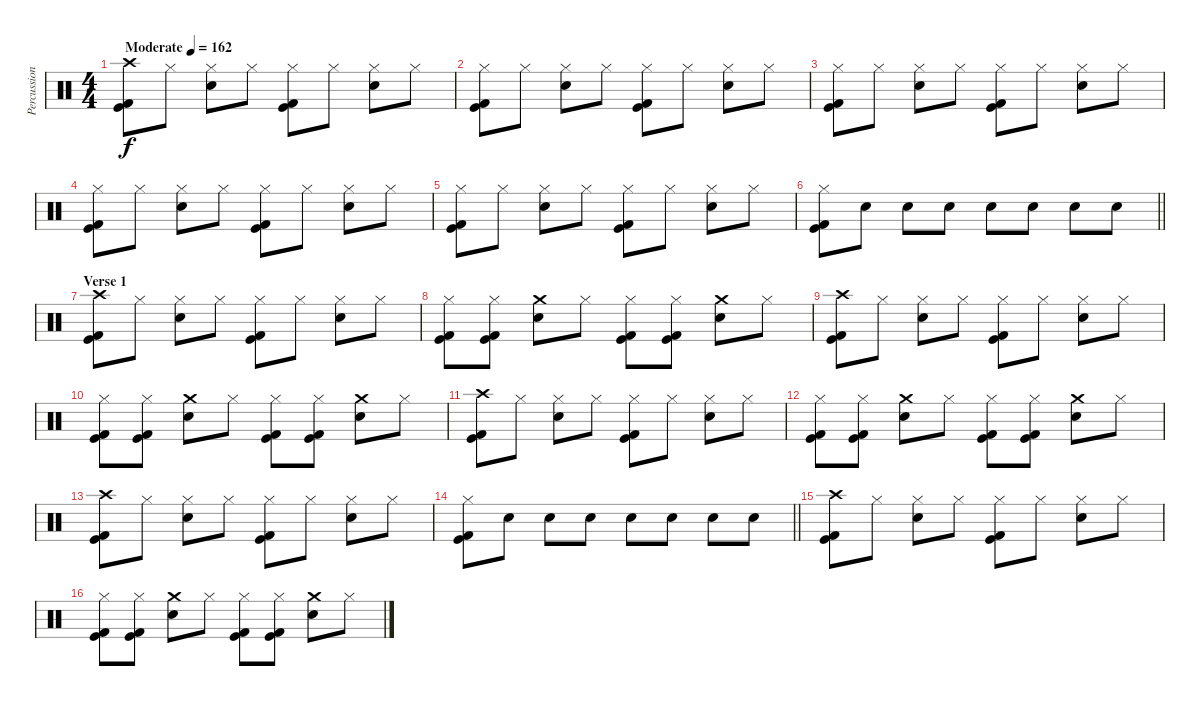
\track ("Percussion" "Percussion") {instrument percussion}
\staff {score}
\articulation defaults
\ts (4 4)
\tempo (162 "Moderate")
\clef neutral
\ks c
("Crash high (hit)" "Kick (hit)" "Kick (hit) 2").8{dy f} "Hi-Hat (closed)".8 ("Hi-Hat (closed)" "Electric Snare (hit)").8 "Hi-Hat (closed)".8 ("Hi-Hat (closed)" "Kick (hit)" "Kick (hit) 2").8 "Hi-Hat (closed)".8 ("Hi-Hat (closed)" "Electric Snare (hit)").8 "Hi-Hat (closed)".8 |
("Hi-Hat (closed)" "Kick (hit)" "Kick (hit) 2").8 "Hi-Hat (closed)".8 ("Hi-Hat (closed)" "Electric Snare (hit)").8 "Hi-Hat (closed)".8 ("Hi-Hat (closed)" "Kick (hit)" "Kick (hit) 2").8 "Hi-Hat (closed)".8 ("Hi-Hat (closed)" "Electric Snare (hit)").8 "Hi-Hat (closed)".8 |
("Hi-Hat (closed)" "Kick (hit)" "Kick (hit) 2").8 "Hi-Hat (closed)".8 ("Hi-Hat (closed)" "Electric Snare (hit)").8 "Hi-Hat (closed)".8 ("Hi-Hat (closed)" "Kick (hit)" "Kick (hit) 2").8 "Hi-Hat (closed)".8 ("Hi-Hat (closed)" "Electric Snare (hit)").8 "Hi-Hat (closed)".8 |
("Hi-Hat (closed)" "Kick (hit)" "Kick (hit) 2").8 "Hi-Hat (closed)".8 ("Hi-Hat (closed)" "Electric Snare (hit)").8 "Hi-Hat (closed)".8 ("Hi-Hat (closed)" "Kick (hit)" "Kick (hit) 2").8 "Hi-Hat (closed)".8 ("Hi-Hat (closed)" "Electric Snare (hit)").8 "Hi-Hat (closed)".8 |
("Hi-Hat (closed)" "Kick (hit)" "Kick (hit) 2").8 "Hi-Hat (closed)".8 ("Hi-Hat (closed)" "Electric Snare (hit)").8 "Hi-Hat (closed)".8 ("Hi-Hat (closed)" "Kick (hit)" "Kick (hit) 2").8 "Hi-Hat (closed)".8 ("Hi-Hat (closed)" "Electric Snare (hit)").8 "Hi-Hat (closed)".8 |
\barLineRight lightlight
("Hi-Hat (closed)" "Kick (hit)" "Kick (hit) 2").8 "Electric Snare (hit)".8 "Electric Snare (hit)".8 "Electric Snare (hit)".8 "Electric Snare (hit)".8 "Electric Snare (hit)".8 "Electric Snare (hit)".8 "Electric Snare (hit)".8 |
\section ("" "Verse 1")
("Crash high (hit)" "Kick (hit)" "Kick (hit) 2").8 "Hi-Hat (closed)".8 ("Hi-Hat (closed)" "Electric Snare (hit)").8 "Hi-Hat (closed)".8 ("Hi-Hat (closed)" "Kick (hit)" "Kick (hit) 2").8 "Hi-Hat (closed)".8 ("Hi-Hat (closed)" "Electric Snare (hit)").8 "Hi-Hat (closed)".8 |
("Hi-Hat (closed)" "Kick (hit)" "Kick (hit) 2").8 ("Hi-Hat (closed)" "Kick (hit)" "Kick (hit) 2").8 ("Crash medium (hit)" "Electric Snare (hit)").8 "Hi-Hat (closed)".8 ("Hi-Hat (closed)" "Kick (hit)" "Kick (hit) 2").8 ("Hi-Hat (closed)" "Kick (hit)" "Kick (hit) 2").8 ("Crash medium (hit)" "Electric Snare (hit)").8 "Hi-Hat (closed)".8 |
("Crash high (hit)" "Kick (hit)" "Kick (hit) 2").8 "Hi-Hat (closed)".8 ("Hi-Hat (closed)" "Electric Snare (hit)").8 "Hi-Hat (closed)".8 ("Hi-Hat (closed)" "Kick (hit)" "Kick (hit) 2").8 "Hi-Hat (closed)".8 ("Hi-Hat (closed)" "Electric Snare (hit)").8 "Hi-Hat (closed)".8 |
("Hi-Hat (closed)" "Kick (hit)" "Kick (hit) 2").8 ("Hi-Hat (closed)" "Kick (hit)" "Kick (hit) 2").8 ("Crash medium (hit)" "Electric Snare (hit)").8 "Hi-Hat (closed)".8 ("Hi-Hat (closed)" "Kick (hit)" "Kick (hit) 2").8 ("Hi-Hat (closed)" "Kick (hit)" "Kick (hit) 2").8 ("Crash medium (hit)" "Electric Snare (hit)").8 "Hi-Hat (closed)".8 |
("Crash high (hit)" "Kick (hit)" "Kick (hit) 2").8 "Hi-Hat (closed)".8 ("Hi-Hat (closed)" "Electric Snare (hit)").8 "Hi-Hat (closed)".8 ("Hi-Hat (closed)" "Kick (hit)" "Kick (hit) 2").8 "Hi-Hat (closed)".8 ("Hi-Hat (closed)" "Electric Snare (hit)").8 "Hi-Hat (closed)".8 |
("Hi-Hat (closed)" "Kick (hit)" "Kick (hit) 2").8 ("Hi-Hat (closed)" "Kick (hit)" "Kick (hit) 2").8 ("Crash medium (hit)" "Electric Snare (hit)").8 "Hi-Hat (closed)".8 ("Hi-Hat (closed)" "Kick (hit)" "Kick (hit) 2").8 ("Hi-Hat (closed)" "Kick (hit)" "Kick (hit) 2").8 ("Crash medium (hit)" "Electric Snare (hit)").8 "Hi-Hat (closed)".8 |
("Crash high (hit)" "Kick (hit)" "Kick (hit) 2").8 "Hi-Hat (closed)".8 ("Hi-Hat (closed)" "Electric Snare (hit)").8 "Hi-Hat (closed)".8 ("Hi-Hat (closed)" "Kick (hit)" "Kick (hit) 2").8 "Hi-Hat (closed)".8 ("Hi-Hat (closed)" "Electric Snare (hit)").8 "Hi-Hat (closed)".8 |
\barLineRight lightlight
("Hi-Hat (closed)" "Kick (hit)" "Kick (hit) 2").8 "Electric Snare (hit)".8 "Electric Snare (hit)".8 "Electric Snare (hit)".8 "Electric Snare (hit)".8 "Electric Snare (hit)".8 "Electric Snare (hit)".8 "Electric Snare (hit)".8 |
\section ("" "")
("Crash high (hit)" "Kick (hit)" "Kick (hit) 2").8 "Hi-Hat (closed)".8 ("Hi-Hat (closed)" "Electric Snare (hit)").8 "Hi-Hat (closed)".8 ("Hi-Hat (closed)" "Kick (hit)" "Kick (hit) 2").8 "Hi-Hat (closed)".8 ("Hi-Hat (closed)" "Electric Snare (hit)").8 "Hi-Hat (closed)".8 |
("Hi-Hat (closed)" "Kick (hit)" "Kick (hit) 2").8 ("Hi-Hat (closed)" "Kick (hit)" "Kick (hit) 2").8 ("Crash medium (hit)" "Electric Snare (hit)").8 "Hi-Hat (closed)".8 ("Hi-Hat (closed)" "Kick (hit)" "Kick (hit) 2").8 ("Hi-Hat (closed)" "Kick (hit)" "Kick (hit) 2").8 ("Crash medium (hit)" "Electric Snare (hit)").8 "Hi-Hat (closed)".8
